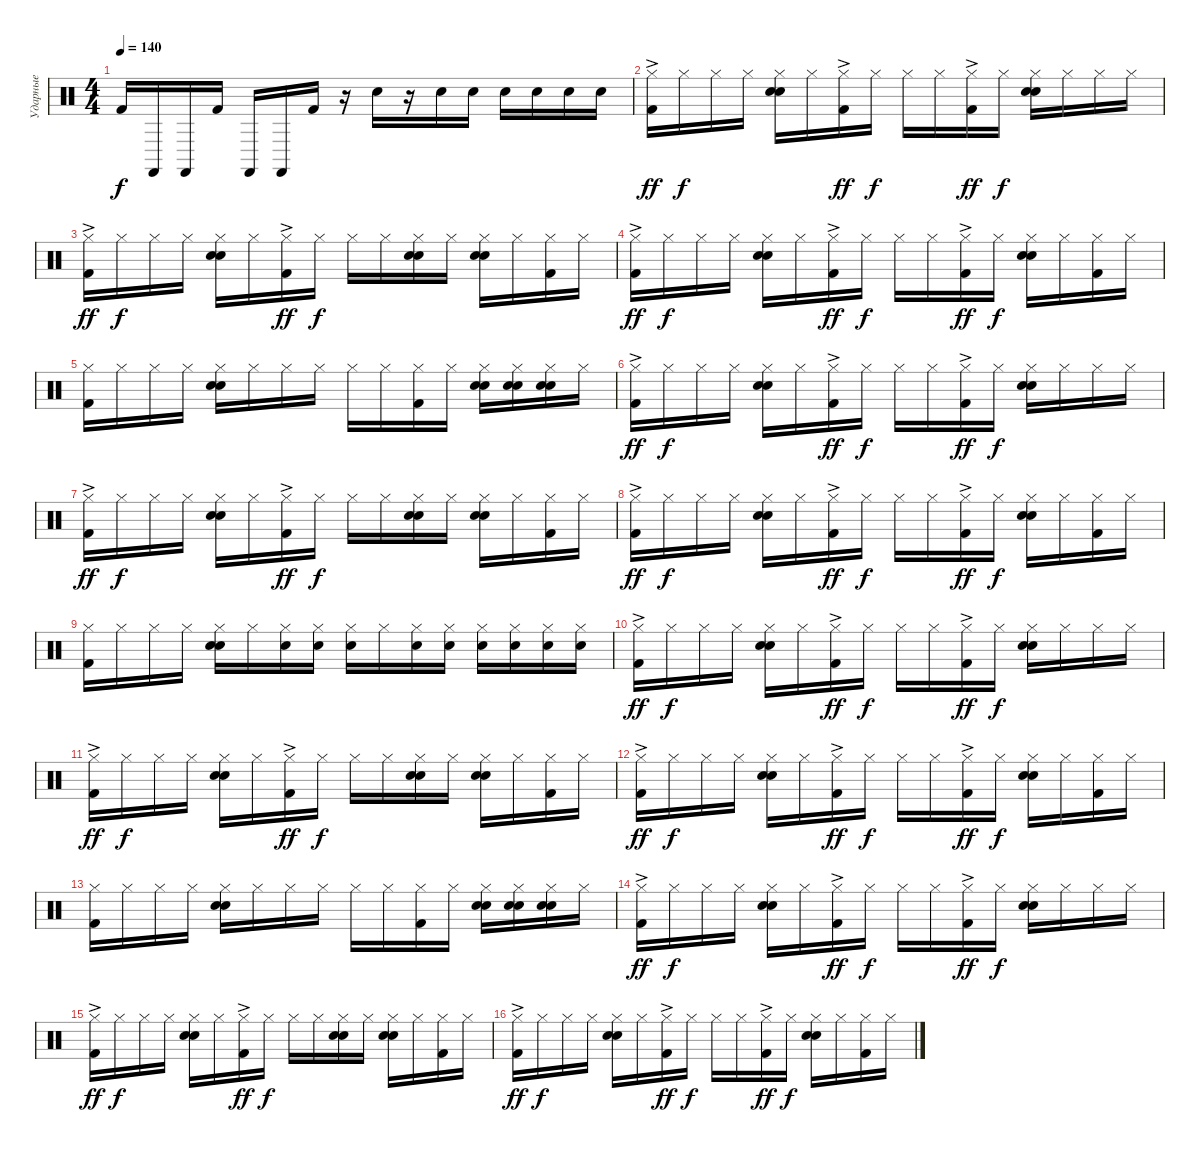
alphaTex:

\track ("Ударные" "Ударные") {instrument percussion}
\staff {score}
\articulation defaults
\ts (4 4)
\tempo 140
\clef neutral
\ks c "Kick (hit) 2".16{dy f} "Castanets (hit)".16 "Castanets (hit)".16 "Kick (hit) 2".16 "Castanets (hit)".16 "Castanets (hit)".16 "Kick (hit) 2".16
r.16 "Snare (hit) 2".16 r.16 "Snare (hit) 2".16 "Snare (hit) 2".16 "Snare (hit) 2".16 "Snare (hit) 2".16 "Snare (hit) 2".16 "Snare (hit) 2".16 |
("Kick (hit) 2"{ac} "Hi-Hat (closed)").16{dy ff} "Hi-Hat (closed)".16{dy f} "Hi-Hat (closed)".16 "Hi-Hat (closed)".16 ("Snare (hit) 2" "Hand Clap (hit)" "Hi-Hat (closed)").16 "Hi-Hat (closed)".16 ("Kick (hit) 2"{ac} "Hi-Hat (closed)").16{dy ff} "Hi-Hat (closed)".16{dy f} "Hi-Hat (closed)".16 "Hi-Hat (closed)".16 ("Kick (hit) 2"{ac} "Hi-Hat (closed)").16{dy ff} "Hi-Hat (closed)".16{dy f} ("Snare (hit) 2" "Hand Clap (hit)" "Hi-Hat (closed)").16 "Hi-Hat (closed)".16 "Hi-Hat (closed)".16 "Hi-Hat (closed)".16 |
("Kick (hit) 2"{ac} "Hi-Hat (closed)").16{dy ff} "Hi-Hat (closed)".16{dy f} "Hi-Hat (closed)".16 "Hi-Hat (closed)".16 ("Snare (hit) 2" "Hand Clap (hit)" "Hi-Hat (closed)").16 "Hi-Hat (closed)".16 ("Kick (hit) 2"{ac} "Hi-Hat (closed)").16{dy ff} "Hi-Hat (closed)".16{dy f} "Hi-Hat (closed)".16 "Hi-Hat (closed)".16 ("Snare (hit) 2" "Hand Clap (hit)" "Hi-Hat (closed)").16 "Hi-Hat (closed)".16 ("Snare (hit) 2" "Hand Clap (hit)" "Hi-Hat (closed)").16 "Hi-Hat (closed)".16 ("Kick (hit) 2" "Hi-Hat (closed)").16 "Hi-Hat (closed)".16 |
("Kick (hit) 2"{ac} "Hi-Hat (closed)").16{dy ff} "Hi-Hat (closed)".16{dy f} "Hi-Hat (closed)".16 "Hi-Hat (closed)".16 ("Snare (hit) 2" "Hand Clap (hit)" "Hi-Hat (closed)").16 "Hi-Hat (closed)".16 ("Kick (hit) 2"{ac} "Hi-Hat (closed)").16{dy ff} "Hi-Hat (closed)".16{dy f} "Hi-Hat (closed)".16 "Hi-Hat (closed)".16 ("Kick (hit) 2"{ac} "Hi-Hat (closed)").16{dy ff} "Hi-Hat (closed)".16{dy f} ("Snare (hit) 2" "Hand Clap (hit)" "Hi-Hat (closed)").16 "Hi-Hat (closed)".16 ("Kick (hit) 2" "Hi-Hat (closed)").16 "Hi-Hat (closed)".16 |
("Kick (hit) 2" "Hi-Hat (closed)").16 "Hi-Hat (closed)".16 "Hi-Hat (closed)".16 "Hi-Hat (closed)".16 ("Snare (hit) 2" "Hand Clap (hit)" "Hi-Hat (closed)").16 "Hi-Hat (closed)".16 "Hi-Hat (closed)".16 "Hi-Hat (closed)".16 "Hi-Hat (closed)".16 "Hi-Hat (closed)".16 ("Kick (hit) 2" "Hi-Hat (closed)").16 "Hi-Hat (closed)".16 ("Snare (hit) 2" "Hand Clap (hit)" "Hi-Hat (closed)").16 ("Snare (hit) 2" "Hand Clap (hit)" "Hi-Hat (closed)").16 ("Snare (hit) 2" "Hand Clap (hit)" "Hi-Hat (closed)").16 "Hi-Hat (closed)".16 |
("Kick (hit) 2"{ac} "Hi-Hat (closed)").16{dy ff} "Hi-Hat (closed)".16{dy f} "Hi-Hat (closed)".16 "Hi-Hat (closed)".16 ("Snare (hit) 2" "Hand Clap (hit)" "Hi-Hat (closed)").16 "Hi-Hat (closed)".16 ("Kick (hit) 2"{ac} "Hi-Hat (closed)").16{dy ff} "Hi-Hat (closed)".16{dy f} "Hi-Hat (closed)".16 "Hi-Hat (closed)".16 ("Kick (hit) 2"{ac} "Hi-Hat (closed)").16{dy ff} "Hi-Hat (closed)".16{dy f} ("Snare (hit) 2" "Hand Clap (hit)" "Hi-Hat (closed)").16 "Hi-Hat (closed)".16 "Hi-Hat (closed)".16 "Hi-Hat (closed)".16 |
("Kick (hit) 2"{ac} "Hi-Hat (closed)").16{dy ff} "Hi-Hat (closed)".16{dy f} "Hi-Hat (closed)".16 "Hi-Hat (closed)".16 ("Snare (hit) 2" "Hand Clap (hit)" "Hi-Hat (closed)").16 "Hi-Hat (closed)".16 ("Kick (hit) 2"{ac} "Hi-Hat (closed)").16{dy ff} "Hi-Hat (closed)".16{dy f} "Hi-Hat (closed)".16 "Hi-Hat (closed)".16 ("Snare (hit) 2" "Hand Clap (hit)" "Hi-Hat (closed)").16 "Hi-Hat (closed)".16 ("Snare (hit) 2" "Hand Clap (hit)" "Hi-Hat (closed)").16 "Hi-Hat (closed)".16 ("Kick (hit) 2" "Hi-Hat (closed)").16 "Hi-Hat (closed)".16 |
("Kick (hit) 2"{ac} "Hi-Hat (closed)").16{dy ff} "Hi-Hat (closed)".16{dy f} "Hi-Hat (closed)".16 "Hi-Hat (closed)".16 ("Snare (hit) 2" "Hand Clap (hit)" "Hi-Hat (closed)").16 "Hi-Hat (closed)".16 ("Kick (hit) 2"{ac} "Hi-Hat (closed)").16{dy ff} "Hi-Hat (closed)".16{dy f} "Hi-Hat (closed)".16 "Hi-Hat (closed)".16 ("Kick (hit) 2"{ac} "Hi-Hat (closed)").16{dy ff} "Hi-Hat (closed)".16{dy f} ("Snare (hit) 2" "Hand Clap (hit)" "Hi-Hat (closed)").16 "Hi-Hat (closed)".16 ("Kick (hit) 2" "Hi-Hat (closed)").16 "Hi-Hat (closed)".16 |
("Kick (hit) 2" "Hi-Hat (closed)").16 "Hi-Hat (closed)".16 "Hi-Hat (closed)".16 "Hi-Hat (closed)".16 ("Snare (hit) 2" "Hand Clap (hit)" "Hi-Hat (closed)").16 "Hi-Hat (closed)".16 ("Snare (hit) 2" "Hi-Hat (closed)").16 ("Snare (hit) 2" "Hi-Hat (closed)").16 ("Snare (hit) 2" "Hi-Hat (closed)").16 "Hi-Hat (closed)".16 ("Snare (hit) 2" "Hi-Hat (closed)").16 ("Snare (hit) 2" "Hi-Hat (closed)").16 ("Snare (hit) 2" "Hi-Hat (closed)").16 ("Snare (hit) 2" "Hi-Hat (closed)").16 ("Snare (hit) 2" "Hi-Hat (closed)").16 ("Snare (hit) 2" "Hi-Hat (closed)").16 |
("Kick (hit) 2"{ac} "Hi-Hat (closed)").16{dy ff} "Hi-Hat (closed)".16{dy f} "Hi-Hat (closed)".16 "Hi-Hat (closed)".16 ("Snare (hit) 2" "Hand Clap (hit)" "Hi-Hat (closed)").16 "Hi-Hat (closed)".16 ("Kick (hit) 2"{ac} "Hi-Hat (closed)").16{dy ff} "Hi-Hat (closed)".16{dy f} "Hi-Hat (closed)".16 "Hi-Hat (closed)".16 ("Kick (hit) 2"{ac} "Hi-Hat (closed)").16{dy ff} "Hi-Hat (closed)".16{dy f} ("Snare (hit) 2" "Hand Clap (hit)" "Hi-Hat (closed)").16 "Hi-Hat (closed)".16 "Hi-Hat (closed)".16 "Hi-Hat (closed)".16 |
("Kick (hit) 2"{ac} "Hi-Hat (closed)").16{dy ff} "Hi-Hat (closed)".16{dy f} "Hi-Hat (closed)".16 "Hi-Hat (closed)".16 ("Snare (hit) 2" "Hand Clap (hit)" "Hi-Hat (closed)").16 "Hi-Hat (closed)".16 ("Kick (hit) 2"{ac} "Hi-Hat (closed)").16{dy ff} "Hi-Hat (closed)".16{dy f} "Hi-Hat (closed)".16 "Hi-Hat (closed)".16 ("Snare (hit) 2" "Hand Clap (hit)" "Hi-Hat (closed)").16 "Hi-Hat (closed)".16 ("Snare (hit) 2" "Hand Clap (hit)" "Hi-Hat (closed)").16 "Hi-Hat (closed)".16 ("Kick (hit) 2" "Hi-Hat (closed)").16 "Hi-Hat (closed)".16 |
("Kick (hit) 2"{ac} "Hi-Hat (closed)").16{dy ff} "Hi-Hat (closed)".16{dy f} "Hi-Hat (closed)".16 "Hi-Hat (closed)".16 ("Snare (hit) 2" "Hand Clap (hit)" "Hi-Hat (closed)").16 "Hi-Hat (closed)".16 ("Kick (hit) 2"{ac} "Hi-Hat (closed)").16{dy ff} "Hi-Hat (closed)".16{dy f} "Hi-Hat (closed)".16 "Hi-Hat (closed)".16 ("Kick (hit) 2"{ac} "Hi-Hat (closed)").16{dy ff} "Hi-Hat (closed)".16{dy f} ("Snare (hit) 2" "Hand Clap (hit)" "Hi-Hat (closed)").16 "Hi-Hat (closed)".16 ("Kick (hit) 2" "Hi-Hat (closed)").16 "Hi-Hat (closed)".16 |
("Kick (hit) 2" "Hi-Hat (closed)").16 "Hi-Hat (closed)".16 "Hi-Hat (closed)".16 "Hi-Hat (closed)".16 ("Snare (hit) 2" "Hand Clap (hit)" "Hi-Hat (closed)").16 "Hi-Hat (closed)".16 "Hi-Hat (closed)".16 "Hi-Hat (closed)".16 "Hi-Hat (closed)".16 "Hi-Hat (closed)".16 ("Kick (hit) 2" "Hi-Hat (closed)").16 "Hi-Hat (closed)".16 ("Snare (hit) 2" "Hand Clap (hit)" "Hi-Hat (closed)").16 ("Snare (hit) 2" "Hand Clap (hit)" "Hi-Hat (closed)").16 ("Snare (hit) 2" "Hand Clap (hit)" "Hi-Hat (closed)").16 "Hi-Hat (closed)".16 |
("Kick (hit) 2"{ac} "Hi-Hat (closed)").16{dy ff} "Hi-Hat (closed)".16{dy f} "Hi-Hat (closed)".16 "Hi-Hat (closed)".16 ("Snare (hit) 2" "Hand Clap (hit)" "Hi-Hat (closed)").16 "Hi-Hat (closed)".16 ("Kick (hit) 2"{ac} "Hi-Hat (closed)").16{dy ff} "Hi-Hat (closed)".16{dy f} "Hi-Hat (closed)".16 "Hi-Hat (closed)".16 ("Kick (hit) 2"{ac} "Hi-Hat (closed)").16{dy ff} "Hi-Hat (closed)".16{dy f} ("Snare (hit) 2" "Hand Clap (hit)" "Hi-Hat (closed)").16 "Hi-Hat (closed)".16 "Hi-Hat (closed)".16 "Hi-Hat (closed)".16 |
("Kick (hit) 2"{ac} "Hi-Hat (closed)").16{dy ff} "Hi-Hat (closed)".16{dy f} "Hi-Hat (closed)".16 "Hi-Hat (closed)".16 ("Snare (hit) 2" "Hand Clap (hit)" "Hi-Hat (closed)").16 "Hi-Hat (closed)".16 ("Kick (hit) 2"{ac} "Hi-Hat (closed)").16{dy ff} "Hi-Hat (closed)".16{dy f} "Hi-Hat (closed)".16 "Hi-Hat (closed)".16 ("Snare (hit) 2" "Hand Clap (hit)" "Hi-Hat (closed)").16 "Hi-Hat (closed)".16 ("Snare (hit) 2" "Hand Clap (hit)" "Hi-Hat (closed)").16 "Hi-Hat (closed)".16 ("Kick (hit) 2" "Hi-Hat (closed)").16 "Hi-Hat (closed)".16 |
("Kick (hit) 2"{ac} "Hi-Hat (closed)").16{dy ff} "Hi-Hat (closed)".16{dy f} "Hi-Hat (closed)".16 "Hi-Hat (closed)".16 ("Snare (hit) 2" "Hand Clap (hit)" "Hi-Hat (closed)").16 "Hi-Hat (closed)".16 ("Kick (hit) 2"{ac} "Hi-Hat (closed)").16{dy ff} "Hi-Hat (closed)".16{dy f} "Hi-Hat (closed)".16 "Hi-Hat (closed)".16 ("Kick (hit) 2"{ac} "Hi-Hat (closed)").16{dy ff} "Hi-Hat (closed)".16{dy f} ("Snare (hit) 2" "Hand Clap (hit)" "Hi-Hat (closed)").16 "Hi-Hat (closed)".16 ("Kick (hit) 2" "Hi-Hat (closed)").16 "Hi-Hat (closed)".16
